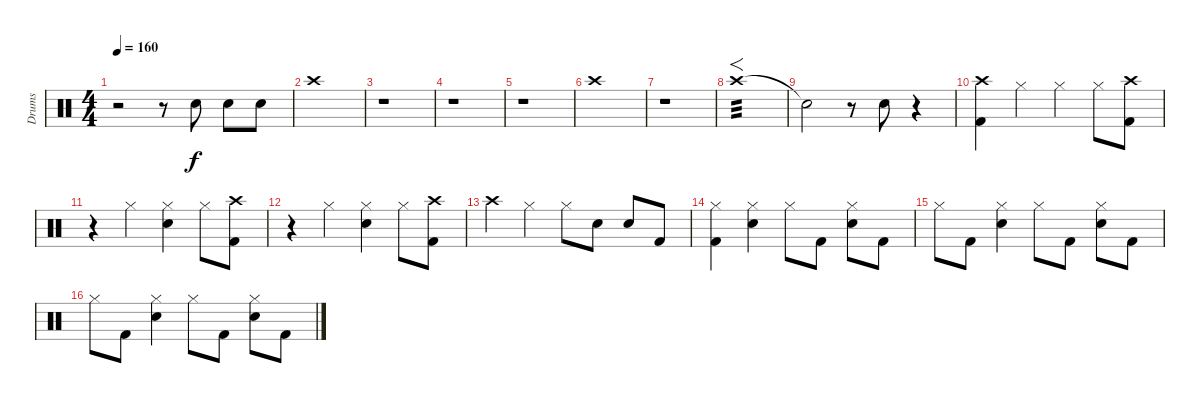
\track ("Drums" "Drums") {instrument percussion}
\staff {score}
\articulation defaults
\ts (4 4)
\tempo 160
\clef neutral
\ks c
r.2{dy f} r.8 "Electric Snare (hit)".8 "Electric Snare (hit)".8 "Electric Snare (hit)".8 |
"Crash high (hit)".1 |
r.1 |
r.1 |
r.1 |
"Crash high (hit)".1 |
r.1 |
"Crash high (hit)".1{f tp 3} |
"Snare (hit)"{t}.2 r.8 "Electric Snare (hit)".8 r.4 |
("Crash high (hit)" "Kick (hit) 2").4 "Hi-Hat (closed)".4 "Hi-Hat (closed)".4 "Hi-Hat (closed)".8 ("Crash high (hit)" "Kick (hit) 2").8 |
r.4 "Hi-Hat (closed)".4 ("Hi-Hat (closed)" "Electric Snare (hit)").4 "Hi-Hat (closed)".8 ("Crash high (hit)" "Kick (hit) 2").8 |
r.4 "Hi-Hat (closed)".4 ("Hi-Hat (closed)" "Electric Snare (hit)").4 "Hi-Hat (closed)".8 ("Crash high (hit)" "Kick (hit) 2").8 |
"Crash high (hit)".4 "Hi-Hat (closed)".4 "Hi-Hat (closed)".8 "Electric Snare (hit)".8 "Electric Snare (hit)".8 "Kick (hit) 2".8 |
("Hi-Hat (closed)" "Kick (hit) 2").4 ("Hi-Hat (closed)" "Electric Snare (hit)").4 "Hi-Hat (closed)".8 "Kick (hit) 2".8 ("Hi-Hat (closed)" "Electric Snare (hit)").8 "Kick (hit) 2".8 |
"Hi-Hat (closed)".8 "Kick (hit) 2".8 ("Hi-Hat (closed)" "Electric Snare (hit)").4 "Hi-Hat (closed)".8 "Kick (hit) 2".8 ("Hi-Hat (closed)" "Electric Snare (hit)").8 "Kick (hit) 2".8 |
"Hi-Hat (closed)".8 "Kick (hit) 2".8 ("Hi-Hat (closed)" "Electric Snare (hit)").4 "Hi-Hat (closed)".8 "Kick (hit) 2".8 ("Hi-Hat (closed)" "Electric Snare (hit)").8 "Kick (hit) 2".8
